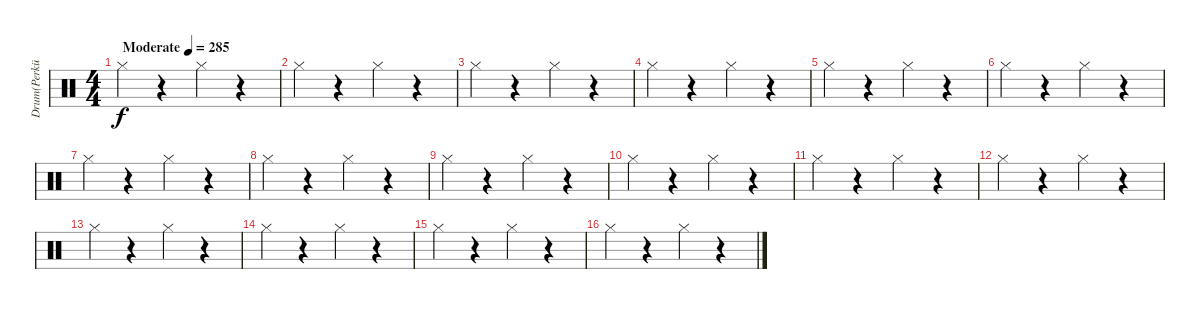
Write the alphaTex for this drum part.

\track ("Drum(Perküsyon)" "Drum(Perkü") {instrument percussion}
\staff {score}
\articulation defaults
\ts (4 4)
\tempo (285 "Moderate")
\clef neutral
\ks c "Hi-Hat (closed)".4{dy f}
r.4 "Hi-Hat (closed)".4 r.4 |
"Hi-Hat (closed)".4 r.4 "Hi-Hat (closed)".4 r.4 |
"Hi-Hat (closed)".4 r.4 "Hi-Hat (closed)".4 r.4 |
"Hi-Hat (closed)".4 r.4 "Hi-Hat (closed)".4 r.4 |
"Hi-Hat (closed)".4 r.4 "Hi-Hat (closed)".4 r.4 |
"Hi-Hat (closed)".4 r.4 "Hi-Hat (closed)".4 r.4 |
"Hi-Hat (closed)".4 r.4 "Hi-Hat (closed)".4 r.4 |
"Hi-Hat (closed)".4 r.4 "Hi-Hat (closed)".4 r.4 |
"Hi-Hat (closed)".4 r.4 "Hi-Hat (closed)".4 r.4 |
"Hi-Hat (closed)".4 r.4 "Hi-Hat (closed)".4 r.4 |
"Hi-Hat (closed)".4 r.4 "Hi-Hat (closed)".4 r.4 |
"Hi-Hat (closed)".4 r.4 "Hi-Hat (closed)".4 r.4 |
"Hi-Hat (closed)".4 r.4 "Hi-Hat (closed)".4 r.4 |
"Hi-Hat (closed)".4 r.4 "Hi-Hat (closed)".4 r.4 |
"Hi-Hat (closed)".4 r.4 "Hi-Hat (closed)".4 r.4 |
"Hi-Hat (closed)".4 r.4 "Hi-Hat (closed)".4 r.4
